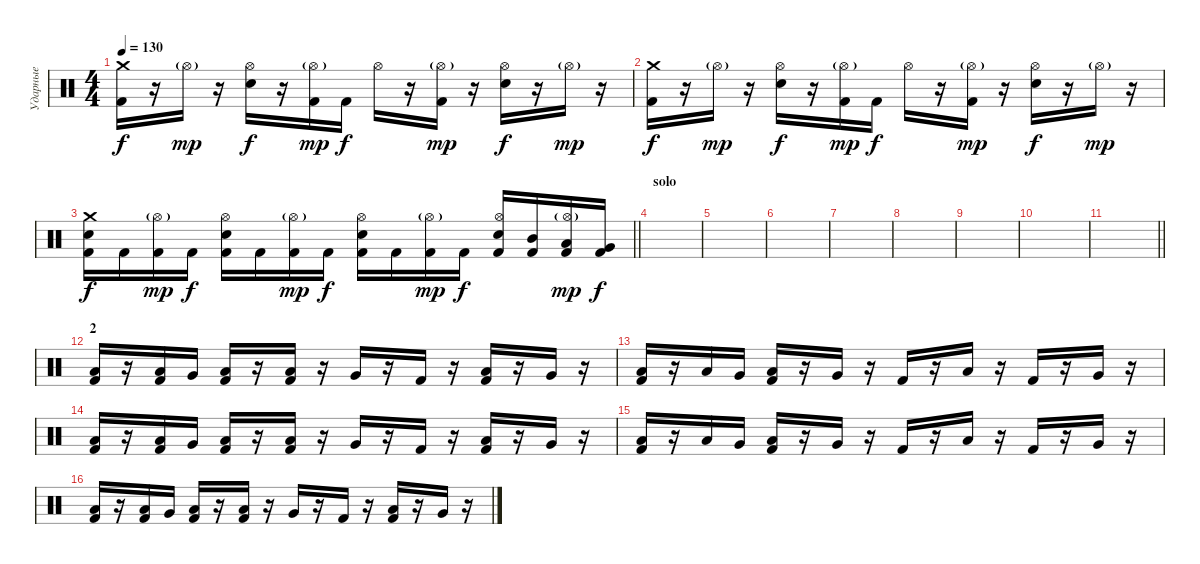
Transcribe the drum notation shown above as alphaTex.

\track ("Ударные" "Ударные") {instrument percussion}
\staff {score}
\articulation defaults
\ts (4 4)
\tempo 130
\clef neutral
\ks c
("Crash medium (hit)" "Kick (hit) 2").16{dy f} r.16 "Hi-Hat (open)"{g}.16{dy mp} r.16 ("Hi-Hat (open)" "Snare (hit) 2").16{dy f} r.16 ("Hi-Hat (open)"{g} "Kick (hit) 2").16{dy mp} "Kick (hit) 2".16{dy f} "Hi-Hat (open)".16 r.16 ("Hi-Hat (open)"{g} "Kick (hit) 2").16{dy mp} r.16 ("Hi-Hat (open)" "Snare (hit) 2").16{dy f} r.16 "Hi-Hat (open)"{g}.16{dy mp} r.16 |
("Crash medium (hit)" "Kick (hit) 2").16{dy f} r.16 "Hi-Hat (open)"{g}.16{dy mp} r.16 ("Hi-Hat (open)" "Snare (hit) 2").16{dy f} r.16 ("Hi-Hat (open)"{g} "Kick (hit) 2").16{dy mp} "Kick (hit) 2".16{dy f} "Hi-Hat (open)".16 r.16 ("Hi-Hat (open)"{g} "Kick (hit) 2").16{dy mp} r.16 ("Hi-Hat (open)" "Snare (hit) 2").16{dy f} r.16 "Hi-Hat (open)"{g}.16{dy mp} r.16 |
\barLineRight lightlight
("Crash medium (hit)" "Snare (hit) 2" "Kick (hit) 2").16{dy f} "Kick (hit) 2".16 ("Hi-Hat (open)"{g} "Kick (hit) 2").16{dy mp} "Kick (hit) 2".16{dy f} ("Hi-Hat (open)" "Snare (hit) 2" "Kick (hit) 2").16 "Kick (hit) 2".16 ("Hi-Hat (open)"{g} "Kick (hit) 2").16{dy mp} "Kick (hit) 2".16{dy f} ("Hi-Hat (open)" "Snare (hit) 2" "Kick (hit) 2").16 "Kick (hit) 2".16 ("Hi-Hat (open)"{g} "Kick (hit) 2").16{dy mp} "Kick (hit) 2".16{dy f} ("Hi-Hat (open)" "Snare (hit) 2" "Kick (hit) 2").16 ("Mid Tom (hit)" "Kick (hit) 2").16 ("Hi-Hat (open)"{g} "Low Tom (hit)" "Kick (hit) 2").16{dy mp} ("Very Low Tom (hit)" "Kick (hit) 2").16{dy f} |
\section ("" "solo")
|
|
|
|
|
|
|
\barLineRight lightlight
|
\section ("" "2")
("Low Floor Tom (hit)" "Kick (hit) 2").16 r.16 ("Low Floor Tom (hit)" "Kick (hit) 2").16 "Very Low Tom (hit)".16 ("Low Tom (hit)" "Kick (hit) 2").16 r.16 ("Low Floor Tom (hit)" "Kick (hit) 2").16 r.16 "Very Low Tom (hit)".16 r.16 "Kick (hit) 2".16 r.16 ("Low Floor Tom (hit)" "Kick (hit) 2").16 r.16 "Very Low Tom (hit)".16 r.16 |
("Low Floor Tom (hit)" "Kick (hit) 2").16 r.16 "Low Floor Tom (hit)".16 "Very Low Tom (hit)".16 ("Low Tom (hit)" "Kick (hit) 2").16 r.16 "Very Low Tom (hit)".16 r.16 "Kick (hit) 2".16 r.16 "Low Floor Tom (hit)".16 r.16 "Kick (hit) 2".16 r.16 "Very Low Tom (hit)".16 r.16 |
("Low Floor Tom (hit)" "Kick (hit) 2").16 r.16 ("Low Floor Tom (hit)" "Kick (hit) 2").16 "Very Low Tom (hit)".16 ("Low Tom (hit)" "Kick (hit) 2").16 r.16 ("Low Floor Tom (hit)" "Kick (hit) 2").16 r.16 "Very Low Tom (hit)".16 r.16 "Kick (hit) 2".16 r.16 ("Low Floor Tom (hit)" "Kick (hit) 2").16 r.16 "Very Low Tom (hit)".16 r.16 |
("Low Floor Tom (hit)" "Kick (hit) 2").16 r.16 "Low Floor Tom (hit)".16 "Very Low Tom (hit)".16 ("Low Tom (hit)" "Kick (hit) 2").16 r.16 "Very Low Tom (hit)".16 r.16 "Kick (hit) 2".16 r.16 "Low Floor Tom (hit)".16 r.16 "Kick (hit) 2".16 r.16 "Very Low Tom (hit)".16 r.16 |
("Low Floor Tom (hit)" "Kick (hit) 2").16 r.16 ("Low Floor Tom (hit)" "Kick (hit) 2").16 "Very Low Tom (hit)".16 ("Low Tom (hit)" "Kick (hit) 2").16 r.16 ("Low Floor Tom (hit)" "Kick (hit) 2").16 r.16 "Very Low Tom (hit)".16 r.16 "Kick (hit) 2".16 r.16 ("Low Floor Tom (hit)" "Kick (hit) 2").16 r.16 "Very Low Tom (hit)".16 r.16
